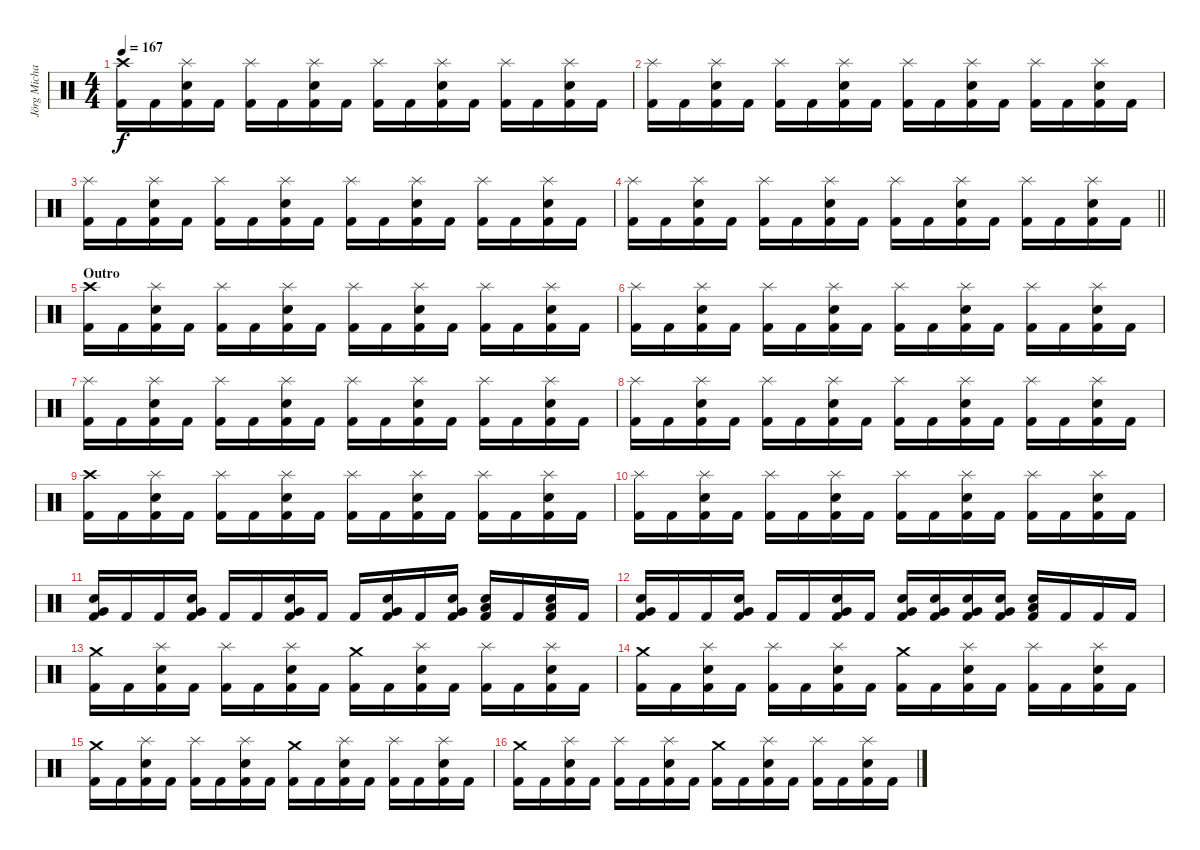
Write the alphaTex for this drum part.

\track ("Jörg Michael" "Jörg Micha") {instrument percussion}
\staff {score}
\articulation defaults
\ts (4 4)
\tempo 167
\clef neutral
\ks c
("Crash high (hit)" "Kick (hit) 2").16{dy f} "Kick (hit) 2".16 ("Splash (hit)" "Snare (hit) 2" "Kick (hit) 2").16 "Kick (hit) 2".16 ("Splash (hit)" "Kick (hit) 2").16 "Kick (hit) 2".16 ("Splash (hit)" "Snare (hit) 2" "Kick (hit) 2").16 "Kick (hit) 2".16 ("Splash (hit)" "Kick (hit) 2").16 "Kick (hit) 2".16 ("Splash (hit)" "Snare (hit) 2" "Kick (hit) 2").16 "Kick (hit) 2".16 ("Splash (hit)" "Kick (hit) 2").16 "Kick (hit) 2".16 ("Splash (hit)" "Snare (hit) 2" "Kick (hit) 2").16 "Kick (hit) 2".16 |
("Splash (hit)" "Kick (hit) 2").16 "Kick (hit) 2".16 ("Splash (hit)" "Snare (hit) 2" "Kick (hit) 2").16 "Kick (hit) 2".16 ("Splash (hit)" "Kick (hit) 2").16 "Kick (hit) 2".16 ("Splash (hit)" "Snare (hit) 2" "Kick (hit) 2").16 "Kick (hit) 2".16 ("Splash (hit)" "Kick (hit) 2").16 "Kick (hit) 2".16 ("Splash (hit)" "Snare (hit) 2" "Kick (hit) 2").16 "Kick (hit) 2".16 ("Splash (hit)" "Kick (hit) 2").16 "Kick (hit) 2".16 ("Splash (hit)" "Snare (hit) 2" "Kick (hit) 2").16 "Kick (hit) 2".16 |
("Splash (hit)" "Kick (hit) 2").16 "Kick (hit) 2".16 ("Splash (hit)" "Snare (hit) 2" "Kick (hit) 2").16 "Kick (hit) 2".16 ("Splash (hit)" "Kick (hit) 2").16 "Kick (hit) 2".16 ("Splash (hit)" "Snare (hit) 2" "Kick (hit) 2").16 "Kick (hit) 2".16 ("Splash (hit)" "Kick (hit) 2").16 "Kick (hit) 2".16 ("Splash (hit)" "Snare (hit) 2" "Kick (hit) 2").16 "Kick (hit) 2".16 ("Splash (hit)" "Kick (hit) 2").16 "Kick (hit) 2".16 ("Splash (hit)" "Snare (hit) 2" "Kick (hit) 2").16 "Kick (hit) 2".16 |
\barLineRight lightlight
("Splash (hit)" "Kick (hit) 2").16 "Kick (hit) 2".16 ("Splash (hit)" "Snare (hit) 2" "Kick (hit) 2").16 "Kick (hit) 2".16 ("Splash (hit)" "Kick (hit) 2").16 "Kick (hit) 2".16 ("Splash (hit)" "Snare (hit) 2" "Kick (hit) 2").16 "Kick (hit) 2".16 ("Splash (hit)" "Kick (hit) 2").16 "Kick (hit) 2".16 ("Splash (hit)" "Snare (hit) 2" "Kick (hit) 2").16 "Kick (hit) 2".16 ("Splash (hit)" "Kick (hit) 2").16 "Kick (hit) 2".16 ("Splash (hit)" "Snare (hit) 2" "Kick (hit) 2").16 "Kick (hit) 2".16 |
\section ("" "Outro")
("Crash high (hit)" "Kick (hit) 2").16 "Kick (hit) 2".16 ("Splash (hit)" "Snare (hit) 2" "Kick (hit) 2").16 "Kick (hit) 2".16 ("Splash (hit)" "Kick (hit) 2").16 "Kick (hit) 2".16 ("Splash (hit)" "Snare (hit) 2" "Kick (hit) 2").16 "Kick (hit) 2".16 ("Splash (hit)" "Kick (hit) 2").16 "Kick (hit) 2".16 ("Splash (hit)" "Snare (hit) 2" "Kick (hit) 2").16 "Kick (hit) 2".16 ("Splash (hit)" "Kick (hit) 2").16 "Kick (hit) 2".16 ("Splash (hit)" "Snare (hit) 2" "Kick (hit) 2").16 "Kick (hit) 2".16 |
("Splash (hit)" "Kick (hit) 2").16 "Kick (hit) 2".16 ("Splash (hit)" "Snare (hit) 2" "Kick (hit) 2").16 "Kick (hit) 2".16 ("Splash (hit)" "Kick (hit) 2").16 "Kick (hit) 2".16 ("Splash (hit)" "Snare (hit) 2" "Kick (hit) 2").16 "Kick (hit) 2".16 ("Splash (hit)" "Kick (hit) 2").16 "Kick (hit) 2".16 ("Splash (hit)" "Snare (hit) 2" "Kick (hit) 2").16 "Kick (hit) 2".16 ("Splash (hit)" "Kick (hit) 2").16 "Kick (hit) 2".16 ("Splash (hit)" "Snare (hit) 2" "Kick (hit) 2").16 "Kick (hit) 2".16 |
("Splash (hit)" "Kick (hit) 2").16 "Kick (hit) 2".16 ("Splash (hit)" "Snare (hit) 2" "Kick (hit) 2").16 "Kick (hit) 2".16 ("Splash (hit)" "Kick (hit) 2").16 "Kick (hit) 2".16 ("Splash (hit)" "Snare (hit) 2" "Kick (hit) 2").16 "Kick (hit) 2".16 ("Splash (hit)" "Kick (hit) 2").16 "Kick (hit) 2".16 ("Splash (hit)" "Snare (hit) 2" "Kick (hit) 2").16 "Kick (hit) 2".16 ("Splash (hit)" "Kick (hit) 2").16 "Kick (hit) 2".16 ("Splash (hit)" "Snare (hit) 2" "Kick (hit) 2").16 "Kick (hit) 2".16 |
("Splash (hit)" "Kick (hit) 2").16 "Kick (hit) 2".16 ("Splash (hit)" "Snare (hit) 2" "Kick (hit) 2").16 "Kick (hit) 2".16 ("Splash (hit)" "Kick (hit) 2").16 "Kick (hit) 2".16 ("Splash (hit)" "Snare (hit) 2" "Kick (hit) 2").16 "Kick (hit) 2".16 ("Splash (hit)" "Kick (hit) 2").16 "Kick (hit) 2".16 ("Splash (hit)" "Snare (hit) 2" "Kick (hit) 2").16 "Kick (hit) 2".16 ("Splash (hit)" "Kick (hit) 2").16 "Kick (hit) 2".16 ("Splash (hit)" "Snare (hit) 2" "Kick (hit) 2").16 "Kick (hit) 2".16 |
("Crash high (hit)" "Kick (hit) 2").16 "Kick (hit) 2".16 ("Splash (hit)" "Snare (hit) 2" "Kick (hit) 2").16 "Kick (hit) 2".16 ("Splash (hit)" "Kick (hit) 2").16 "Kick (hit) 2".16 ("Splash (hit)" "Snare (hit) 2" "Kick (hit) 2").16 "Kick (hit) 2".16 ("Splash (hit)" "Kick (hit) 2").16 "Kick (hit) 2".16 ("Splash (hit)" "Snare (hit) 2" "Kick (hit) 2").16 "Kick (hit) 2".16 ("Splash (hit)" "Kick (hit) 2").16 "Kick (hit) 2".16 ("Splash (hit)" "Snare (hit) 2" "Kick (hit) 2").16 "Kick (hit) 2".16 |
("Splash (hit)" "Kick (hit) 2").16 "Kick (hit) 2".16 ("Splash (hit)" "Snare (hit) 2" "Kick (hit) 2").16 "Kick (hit) 2".16 ("Splash (hit)" "Kick (hit) 2").16 "Kick (hit) 2".16 ("Splash (hit)" "Snare (hit) 2" "Kick (hit) 2").16 "Kick (hit) 2".16 ("Splash (hit)" "Kick (hit) 2").16 "Kick (hit) 2".16 ("Splash (hit)" "Snare (hit) 2" "Kick (hit) 2").16 "Kick (hit) 2".16 ("Splash (hit)" "Kick (hit) 2").16 "Kick (hit) 2".16 ("Splash (hit)" "Snare (hit) 2" "Kick (hit) 2").16 "Kick (hit) 2".16 |
("Very Low Tom (hit)" "Snare (hit) 2" "Kick (hit) 2").16 "Kick (hit) 2".16 "Kick (hit) 2".16 ("Very Low Tom (hit)" "Snare (hit) 2" "Kick (hit) 2").16 "Kick (hit) 2".16 "Kick (hit) 2".16 ("Very Low Tom (hit)" "Snare (hit) 2" "Kick (hit) 2").16 "Kick (hit) 2".16 "Kick (hit) 2".16 ("Very Low Tom (hit)" "Snare (hit) 2" "Kick (hit) 2").16 "Kick (hit) 2".16 ("Very Low Tom (hit)" "Snare (hit) 2" "Kick (hit) 2").16 ("Low Floor Tom (hit)" "Snare (hit) 2" "Kick (hit) 2").16 "Kick (hit) 2".16 ("Low Floor Tom (hit)" "Snare (hit) 2" "Kick (hit) 2").16 "Kick (hit) 2".16 |
("Very Low Tom (hit)" "Snare (hit) 2" "Kick (hit) 2").16 "Kick (hit) 2".16 "Kick (hit) 2".16 ("Very Low Tom (hit)" "Snare (hit) 2" "Kick (hit) 2").16 "Kick (hit) 2".16 "Kick (hit) 2".16 ("Very Low Tom (hit)" "Snare (hit) 2" "Kick (hit) 2").16 "Kick (hit) 2".16 ("Very Low Tom (hit)" "Snare (hit) 2" "Kick (hit) 2").16 ("Very Low Tom (hit)" "Snare (hit) 2" "Kick (hit) 2").16 ("Very Low Tom (hit)" "Snare (hit) 2" "Kick (hit) 2").16 ("Very Low Tom (hit)" "Snare (hit) 2" "Kick (hit) 2").16 ("Low Floor Tom (hit)" "Snare (hit) 2" "Kick (hit) 2").16 "Kick (hit) 2".16 "Kick (hit) 2".16 "Kick (hit) 2".16 |
("Crash medium (hit)" "Kick (hit) 2").16 "Kick (hit) 2".16 ("Splash (hit)" "Snare (hit) 2" "Kick (hit) 2").16 "Kick (hit) 2".16 ("Splash (hit)" "Kick (hit) 2").16 "Kick (hit) 2".16 ("Splash (hit)" "Snare (hit) 2" "Kick (hit) 2").16 "Kick (hit) 2".16 ("Crash medium (hit)" "Kick (hit) 2").16 "Kick (hit) 2".16 ("Splash (hit)" "Snare (hit) 2" "Kick (hit) 2").16 "Kick (hit) 2".16 ("Splash (hit)" "Kick (hit) 2").16 "Kick (hit) 2".16 ("Splash (hit)" "Snare (hit) 2" "Kick (hit) 2").16 "Kick (hit) 2".16 |
("Crash medium (hit)" "Kick (hit) 2").16 "Kick (hit) 2".16 ("Splash (hit)" "Snare (hit) 2" "Kick (hit) 2").16 "Kick (hit) 2".16 ("Splash (hit)" "Kick (hit) 2").16 "Kick (hit) 2".16 ("Splash (hit)" "Snare (hit) 2" "Kick (hit) 2").16 "Kick (hit) 2".16 ("Crash medium (hit)" "Kick (hit) 2").16 "Kick (hit) 2".16 ("Splash (hit)" "Snare (hit) 2" "Kick (hit) 2").16 "Kick (hit) 2".16 ("Splash (hit)" "Kick (hit) 2").16 "Kick (hit) 2".16 ("Splash (hit)" "Snare (hit) 2" "Kick (hit) 2").16 "Kick (hit) 2".16 |
("Crash medium (hit)" "Kick (hit) 2").16 "Kick (hit) 2".16 ("Splash (hit)" "Snare (hit) 2" "Kick (hit) 2").16 "Kick (hit) 2".16 ("Splash (hit)" "Kick (hit) 2").16 "Kick (hit) 2".16 ("Splash (hit)" "Snare (hit) 2" "Kick (hit) 2").16 "Kick (hit) 2".16 ("Crash medium (hit)" "Kick (hit) 2").16 "Kick (hit) 2".16 ("Splash (hit)" "Snare (hit) 2" "Kick (hit) 2").16 "Kick (hit) 2".16 ("Splash (hit)" "Kick (hit) 2").16 "Kick (hit) 2".16 ("Splash (hit)" "Snare (hit) 2" "Kick (hit) 2").16 "Kick (hit) 2".16 |
("Crash medium (hit)" "Kick (hit) 2").16 "Kick (hit) 2".16 ("Splash (hit)" "Snare (hit) 2" "Kick (hit) 2").16 "Kick (hit) 2".16 ("Splash (hit)" "Kick (hit) 2").16 "Kick (hit) 2".16 ("Splash (hit)" "Snare (hit) 2" "Kick (hit) 2").16 "Kick (hit) 2".16 ("Crash medium (hit)" "Kick (hit) 2").16 "Kick (hit) 2".16 ("Splash (hit)" "Snare (hit) 2" "Kick (hit) 2").16 "Kick (hit) 2".16 ("Splash (hit)" "Kick (hit) 2").16 "Kick (hit) 2".16 ("Splash (hit)" "Snare (hit) 2" "Kick (hit) 2").16 "Kick (hit) 2".16
